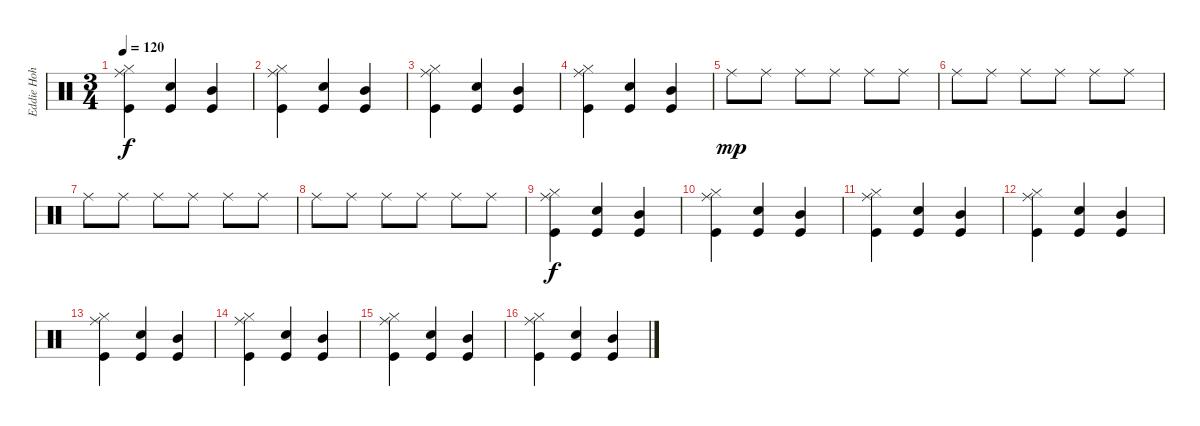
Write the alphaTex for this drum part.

\track ("Eddie Hoh" "Eddie Hoh") {instrument percussion}
\staff {score}
\articulation defaults
\ts (3 4)
\tempo 120
\clef neutral
\ks c
("Ride (middle)" "Hi-Hat (closed)" "Kick (hit)").4{dy f} ("Snare (hit) 2" "Kick (hit)").4 ("Mid Tom (hit)" "Kick (hit)").4 |
("Ride (middle)" "Hi-Hat (closed)" "Kick (hit)").4 ("Snare (hit) 2" "Kick (hit)").4 ("Mid Tom (hit)" "Kick (hit)").4 |
("Ride (middle)" "Hi-Hat (closed)" "Kick (hit)").4 ("Snare (hit) 2" "Kick (hit)").4 ("Mid Tom (hit)" "Kick (hit)").4 |
("Ride (middle)" "Hi-Hat (closed)" "Kick (hit)").4 ("Snare (hit) 2" "Kick (hit)").4 ("Mid Tom (hit)" "Kick (hit)").4 |
"Ride (middle)".8{dy mp} "Ride (middle)".8 "Ride (middle)".8 "Ride (middle)".8 "Ride (middle)".8 "Ride (middle)".8 |
"Ride (middle)".8 "Ride (middle)".8 "Ride (middle)".8 "Ride (middle)".8 "Ride (middle)".8 "Ride (middle)".8 |
"Ride (middle)".8 "Ride (middle)".8 "Ride (middle)".8 "Ride (middle)".8 "Ride (middle)".8 "Ride (middle)".8 |
"Ride (middle)".8 "Ride (middle)".8 "Ride (middle)".8 "Ride (middle)".8 "Ride (middle)".8 "Ride (middle)".8 |
("Ride (middle)" "Hi-Hat (closed)" "Kick (hit)").4{dy f} ("Snare (hit) 2" "Kick (hit)").4 ("Mid Tom (hit)" "Kick (hit)").4 |
("Ride (middle)" "Hi-Hat (closed)" "Kick (hit)").4 ("Snare (hit) 2" "Kick (hit)").4 ("Mid Tom (hit)" "Kick (hit)").4 |
("Ride (middle)" "Hi-Hat (closed)" "Kick (hit)").4 ("Snare (hit) 2" "Kick (hit)").4 ("Mid Tom (hit)" "Kick (hit)").4 |
("Ride (middle)" "Hi-Hat (closed)" "Kick (hit)").4 ("Snare (hit) 2" "Kick (hit)").4 ("Mid Tom (hit)" "Kick (hit)").4 |
("Ride (middle)" "Hi-Hat (closed)" "Kick (hit)").4 ("Snare (hit) 2" "Kick (hit)").4 ("Mid Tom (hit)" "Kick (hit)").4 |
("Ride (middle)" "Hi-Hat (closed)" "Kick (hit)").4 ("Snare (hit) 2" "Kick (hit)").4 ("Mid Tom (hit)" "Kick (hit)").4 |
("Ride (middle)" "Hi-Hat (closed)" "Kick (hit)").4 ("Snare (hit) 2" "Kick (hit)").4 ("Mid Tom (hit)" "Kick (hit)").4 |
("Ride (middle)" "Hi-Hat (closed)" "Kick (hit)").4 ("Snare (hit) 2" "Kick (hit)").4 ("Mid Tom (hit)" "Kick (hit)").4
